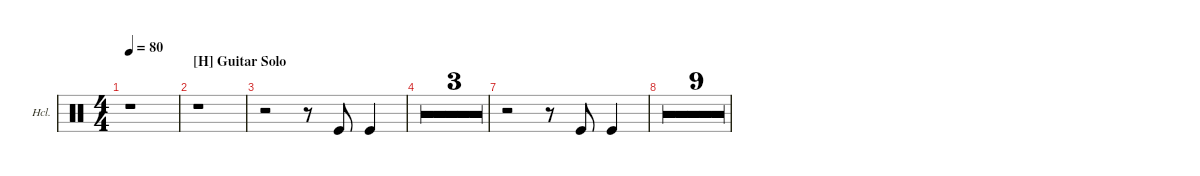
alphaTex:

\defaultSystemsLayout 4
\hideDynamics
\bracketExtendMode groupsimilarinstruments
\firstSystemTrackNameOrientation horizontal
\otherSystemsTrackNameOrientation horizontal
\track ("Hand Clap" "Hcl.") {multiBarRest instrument percussion}
\staff {score}
\articulation defaults
\ts (4 4)
\tempo 80
\clef neutral
\ks c
r.1{dy mp} |
\section ("H" "Guitar Solo")
r.1 |
r.2 r.8 "Kick (hit)".8 "Kick (hit)".4 |
r.1 |
r.1 |
r.1 |
r.2 r.8 "Kick (hit)".8 "Kick (hit)".4 |
r.1 |
r.1 |
r.1 |
r.1 |
r.1 |
r.1 |
r.1 |
r.1 |
r.1
